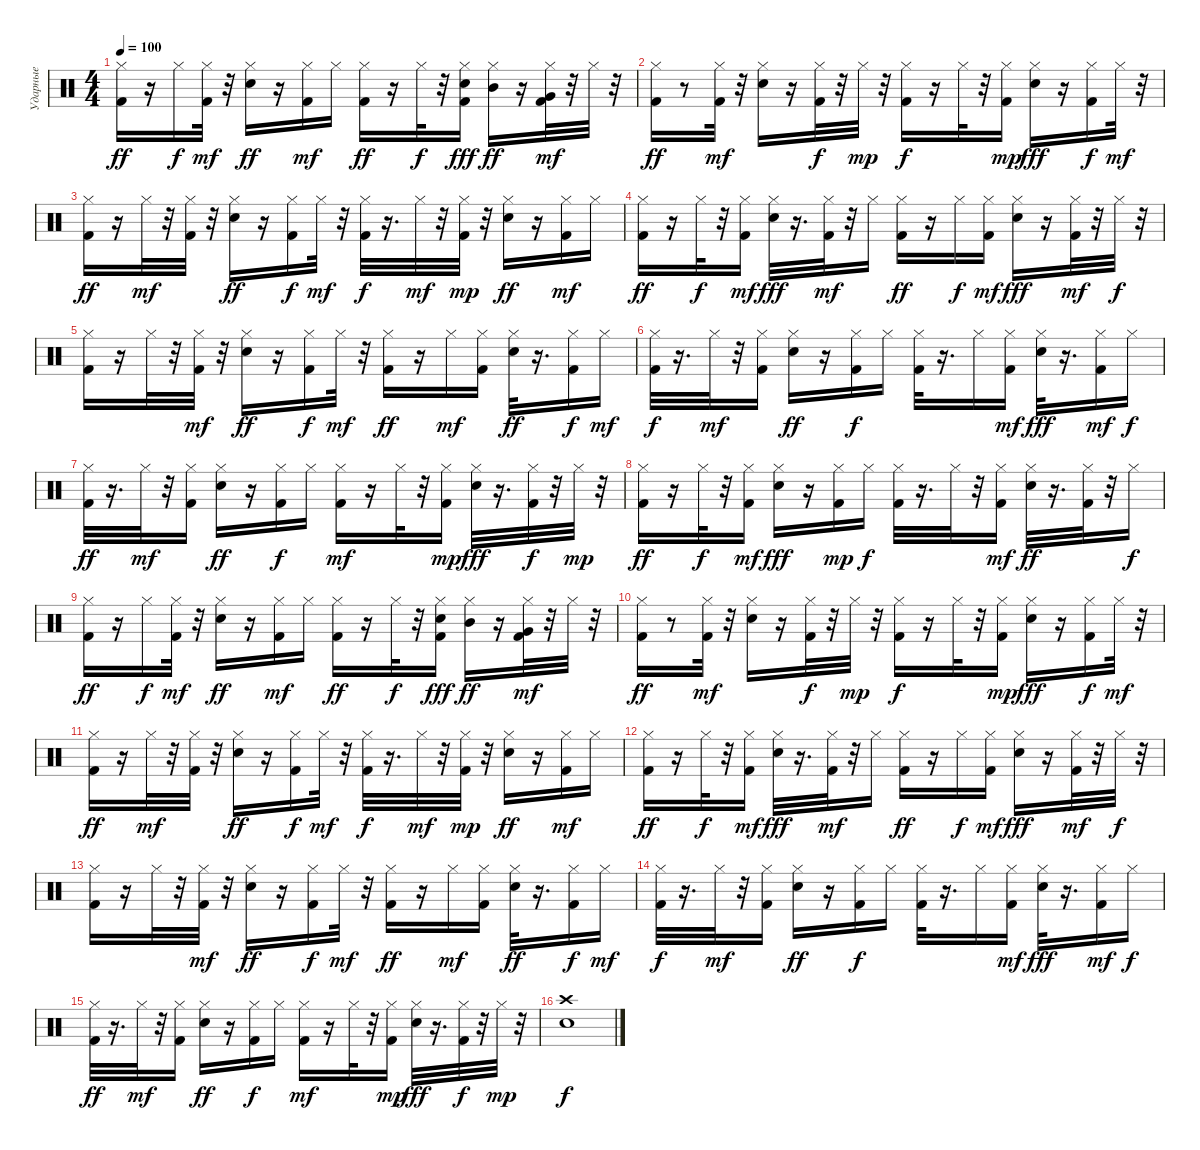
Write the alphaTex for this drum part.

\track ("Ударные" "Ударные") {instrument percussion}
\staff {score}
\articulation defaults
\ts (4 4)
\tempo 100
\clef neutral
\ks c
("Hi-Hat (closed)" "Kick (hit) 2").16{dy ff} r.16 "Hi-Hat (closed)".16{dy f} ("Kick (hit) 2" "Hi-Hat (closed)").32{dy mf} r.32 ("Hi-Hat (closed)" "Snare (hit) 2").16{dy ff} r.16 ("Hi-Hat (closed)" "Kick (hit) 2").16{dy mf} "Hi-Hat (closed)".16 ("Hi-Hat (closed)" "Kick (hit) 2").16{dy ff} r.16 "Hi-Hat (closed)".32{dy f} r.32 ("Hi-Hat (closed)" "Kick (hit) 2" "Snare (hit) 2").16{dy fff} ("Hi-Hat (closed)" "Mid Tom (hit)").16{dy ff} r.16 ("Kick (hit) 2" "Hi-Hat (closed)" "Very Low Tom (hit)").32{dy mf} r.32 "Hi-Hat (closed)".32 r.32 |
("Kick (hit) 2" "Hi-Hat (closed)").16{dy ff} r.8 ("Hi-Hat (closed)" "Kick (hit) 2").32{dy mf} r.32 ("Snare (hit) 2" "Hi-Hat (closed)").16 r.16 ("Kick (hit) 2" "Hi-Hat (closed)").32{dy f} r.32 "Hi-Hat (closed)".32{dy mp} r.32 ("Kick (hit) 2" "Hi-Hat (closed)").16{dy f} r.16 "Hi-Hat (closed)".32 r.32 ("Kick (hit) 2" "Hi-Hat (closed)").16{dy mp} ("Hi-Hat (closed)" "Snare (hit) 2").16{dy fff} r.16 ("Kick (hit) 2" "Hi-Hat (closed)").16{dy f} "Hi-Hat (closed)".32{dy mf} r.32 |
("Kick (hit) 2" "Hi-Hat (closed)").16{dy ff} r.16 "Hi-Hat (closed)".32{dy mf} r.32 ("Kick (hit) 2" "Hi-Hat (closed)").32 r.32 ("Hi-Hat (closed)" "Snare (hit) 2").16{dy ff} r.16 ("Kick (hit) 2" "Hi-Hat (closed)").16{dy f} "Hi-Hat (closed)".32{dy mf} r.32 ("Kick (hit) 2" "Hi-Hat (closed)").32{dy f} r.16{d} "Hi-Hat (closed)".32{dy mf} r.32 ("Kick (hit) 2" "Hi-Hat (closed)").32{dy mp} r.32 ("Hi-Hat (closed)" "Snare (hit) 2").16{dy ff} r.16 ("Hi-Hat (closed)" "Kick (hit) 2").16{dy mf} "Hi-Hat (closed)".16 |
("Hi-Hat (closed)" "Kick (hit) 2").16{dy ff} r.16 "Hi-Hat (closed)".32{dy f} r.32 ("Kick (hit) 2" "Hi-Hat (closed)").16{dy mf} ("Hi-Hat (closed)" "Snare (hit) 2").32{dy fff} r.16{d} ("Kick (hit) 2" "Hi-Hat (closed)").32{dy mf} r.32 "Hi-Hat (closed)".16 ("Hi-Hat (closed)" "Kick (hit) 2").16{dy ff} r.16 "Hi-Hat (closed)".16{dy f} ("Kick (hit) 2" "Hi-Hat (closed)").16{dy mf} ("Hi-Hat (closed)" "Snare (hit) 2").16{dy fff} r.16 ("Kick (hit) 2" "Hi-Hat (closed)").32{dy mf} r.32 "Hi-Hat (closed)".32{dy f} r.32 |
("Hi-Hat (closed)" "Kick (hit) 2").16 r.16 "Hi-Hat (closed)".32 r.32 ("Kick (hit) 2" "Hi-Hat (closed)").32{dy mf} r.32 ("Hi-Hat (closed)" "Snare (hit) 2").16{dy ff} r.16 ("Kick (hit) 2" "Hi-Hat (closed)").16{dy f} "Hi-Hat (closed)".32{dy mf} r.32 ("Kick (hit) 2" "Hi-Hat (closed)").16{dy ff} r.16 "Hi-Hat (closed)".16{dy mf} ("Kick (hit) 2" "Hi-Hat (closed)").16 ("Hi-Hat (closed)" "Snare (hit) 2").32{dy ff} r.16{d} ("Kick (hit) 2" "Hi-Hat (closed)").16{dy f} "Hi-Hat (closed)".16{dy mf} |
("Kick (hit) 2" "Hi-Hat (closed)").32{dy f} r.16{d} "Hi-Hat (closed)".32{dy mf} r.32 ("Kick (hit) 2" "Hi-Hat (closed)").16 ("Hi-Hat (closed)" "Snare (hit) 2").16{dy ff} r.16 ("Kick (hit) 2" "Hi-Hat (closed)").16{dy f} "Hi-Hat (closed)".16 ("Kick (hit) 2" "Hi-Hat (closed)").32 r.16{d} "Hi-Hat (closed)".16 ("Kick (hit) 2" "Hi-Hat (closed)").16{dy mf} ("Hi-Hat (closed)" "Snare (hit) 2").32{dy fff} r.16{d} ("Kick (hit) 2" "Hi-Hat (closed)").16{dy mf} "Hi-Hat (closed)".16{dy f} |
("Kick (hit) 2" "Hi-Hat (closed)").32{dy ff} r.16{d} "Hi-Hat (closed)".32{dy mf} r.32 ("Kick (hit) 2" "Hi-Hat (closed)").16 ("Hi-Hat (closed)" "Snare (hit) 2").16{dy ff} r.16 ("Kick (hit) 2" "Hi-Hat (closed)").16{dy f} "Hi-Hat (closed)".16 ("Hi-Hat (closed)" "Kick (hit) 2").16{dy mf} r.16 "Hi-Hat (closed)".32 r.32 ("Kick (hit) 2" "Hi-Hat (closed)").16{dy mp} ("Hi-Hat (closed)" "Snare (hit) 2").32{dy fff} r.16{d} ("Kick (hit) 2" "Hi-Hat (closed)").32{dy f} r.32 "Hi-Hat (closed)".32{dy mp} r.32 |
("Kick (hit) 2" "Hi-Hat (closed)").16{dy ff} r.16 "Hi-Hat (closed)".32{dy f} r.32 ("Hi-Hat (closed)" "Kick (hit) 2").16{dy mf} ("Hi-Hat (closed)" "Snare (hit) 2").16{dy fff} r.16 ("Kick (hit) 2" "Hi-Hat (closed)").16{dy mp} "Hi-Hat (closed)".16{dy f} ("Kick (hit) 2" "Hi-Hat (closed)").32 r.16{d} "Hi-Hat (closed)".32 r.32 ("Kick (hit) 2" "Hi-Hat (closed)").16{dy mf} ("Hi-Hat (closed)" "Snare (hit) 2").32{dy ff} r.16{d} ("Kick (hit) 2" "Hi-Hat (closed)").32 r.32 "Hi-Hat (closed)".16{dy f} |
("Hi-Hat (closed)" "Kick (hit) 2").16{dy ff} r.16 "Hi-Hat (closed)".16{dy f} ("Kick (hit) 2" "Hi-Hat (closed)").32{dy mf} r.32 ("Hi-Hat (closed)" "Snare (hit) 2").16{dy ff} r.16 ("Hi-Hat (closed)" "Kick (hit) 2").16{dy mf} "Hi-Hat (closed)".16 ("Hi-Hat (closed)" "Kick (hit) 2").16{dy ff} r.16 "Hi-Hat (closed)".32{dy f} r.32 ("Hi-Hat (closed)" "Kick (hit) 2" "Snare (hit) 2").16{dy fff} ("Hi-Hat (closed)" "Mid Tom (hit)").16{dy ff} r.16 ("Kick (hit) 2" "Hi-Hat (closed)" "Very Low Tom (hit)").32{dy mf} r.32 "Hi-Hat (closed)".32 r.32 |
("Kick (hit) 2" "Hi-Hat (closed)").16{dy ff} r.8 ("Hi-Hat (closed)" "Kick (hit) 2").32{dy mf} r.32 ("Snare (hit) 2" "Hi-Hat (closed)").16 r.16 ("Kick (hit) 2" "Hi-Hat (closed)").32{dy f} r.32 "Hi-Hat (closed)".32{dy mp} r.32 ("Kick (hit) 2" "Hi-Hat (closed)").16{dy f} r.16 "Hi-Hat (closed)".32 r.32 ("Kick (hit) 2" "Hi-Hat (closed)").16{dy mp} ("Hi-Hat (closed)" "Snare (hit) 2").16{dy fff} r.16 ("Kick (hit) 2" "Hi-Hat (closed)").16{dy f} "Hi-Hat (closed)".32{dy mf} r.32 |
("Kick (hit) 2" "Hi-Hat (closed)").16{dy ff} r.16 "Hi-Hat (closed)".32{dy mf} r.32 ("Kick (hit) 2" "Hi-Hat (closed)").32 r.32 ("Hi-Hat (closed)" "Snare (hit) 2").16{dy ff} r.16 ("Kick (hit) 2" "Hi-Hat (closed)").16{dy f} "Hi-Hat (closed)".32{dy mf} r.32 ("Kick (hit) 2" "Hi-Hat (closed)").32{dy f} r.16{d} "Hi-Hat (closed)".32{dy mf} r.32 ("Kick (hit) 2" "Hi-Hat (closed)").32{dy mp} r.32 ("Hi-Hat (closed)" "Snare (hit) 2").16{dy ff} r.16 ("Hi-Hat (closed)" "Kick (hit) 2").16{dy mf} "Hi-Hat (closed)".16 |
("Hi-Hat (closed)" "Kick (hit) 2").16{dy ff} r.16 "Hi-Hat (closed)".32{dy f} r.32 ("Kick (hit) 2" "Hi-Hat (closed)").16{dy mf} ("Hi-Hat (closed)" "Snare (hit) 2").32{dy fff} r.16{d} ("Kick (hit) 2" "Hi-Hat (closed)").32{dy mf} r.32 "Hi-Hat (closed)".16 ("Hi-Hat (closed)" "Kick (hit) 2").16{dy ff} r.16 "Hi-Hat (closed)".16{dy f} ("Kick (hit) 2" "Hi-Hat (closed)").16{dy mf} ("Hi-Hat (closed)" "Snare (hit) 2").16{dy fff} r.16 ("Kick (hit) 2" "Hi-Hat (closed)").32{dy mf} r.32 "Hi-Hat (closed)".32{dy f} r.32 |
("Hi-Hat (closed)" "Kick (hit) 2").16 r.16 "Hi-Hat (closed)".32 r.32 ("Kick (hit) 2" "Hi-Hat (closed)").32{dy mf} r.32 ("Hi-Hat (closed)" "Snare (hit) 2").16{dy ff} r.16 ("Kick (hit) 2" "Hi-Hat (closed)").16{dy f} "Hi-Hat (closed)".32{dy mf} r.32 ("Kick (hit) 2" "Hi-Hat (closed)").16{dy ff} r.16 "Hi-Hat (closed)".16{dy mf} ("Kick (hit) 2" "Hi-Hat (closed)").16 ("Hi-Hat (closed)" "Snare (hit) 2").32{dy ff} r.16{d} ("Kick (hit) 2" "Hi-Hat (closed)").16{dy f} "Hi-Hat (closed)".16{dy mf} |
("Kick (hit) 2" "Hi-Hat (closed)").32{dy f} r.16{d} "Hi-Hat (closed)".32{dy mf} r.32 ("Kick (hit) 2" "Hi-Hat (closed)").16 ("Hi-Hat (closed)" "Snare (hit) 2").16{dy ff} r.16 ("Kick (hit) 2" "Hi-Hat (closed)").16{dy f} "Hi-Hat (closed)".16 ("Kick (hit) 2" "Hi-Hat (closed)").32 r.16{d} "Hi-Hat (closed)".16 ("Kick (hit) 2" "Hi-Hat (closed)").16{dy mf} ("Hi-Hat (closed)" "Snare (hit) 2").32{dy fff} r.16{d} ("Kick (hit) 2" "Hi-Hat (closed)").16{dy mf} "Hi-Hat (closed)".16{dy f} |
("Kick (hit) 2" "Hi-Hat (closed)").32{dy ff} r.16{d} "Hi-Hat (closed)".32{dy mf} r.32 ("Kick (hit) 2" "Hi-Hat (closed)").16 ("Hi-Hat (closed)" "Snare (hit) 2").16{dy ff} r.16 ("Kick (hit) 2" "Hi-Hat (closed)").16{dy f} "Hi-Hat (closed)".16 ("Hi-Hat (closed)" "Kick (hit) 2").16{dy mf} r.16 "Hi-Hat (closed)".32 r.32 ("Kick (hit) 2" "Hi-Hat (closed)").16{dy mp} ("Hi-Hat (closed)" "Snare (hit) 2").32{dy fff} r.16{d} ("Kick (hit) 2" "Hi-Hat (closed)").32{dy f} r.32 "Hi-Hat (closed)".32{dy mp} r.32 |
("Snare (hit) 2" "Crash high (hit)").1{dy f}
